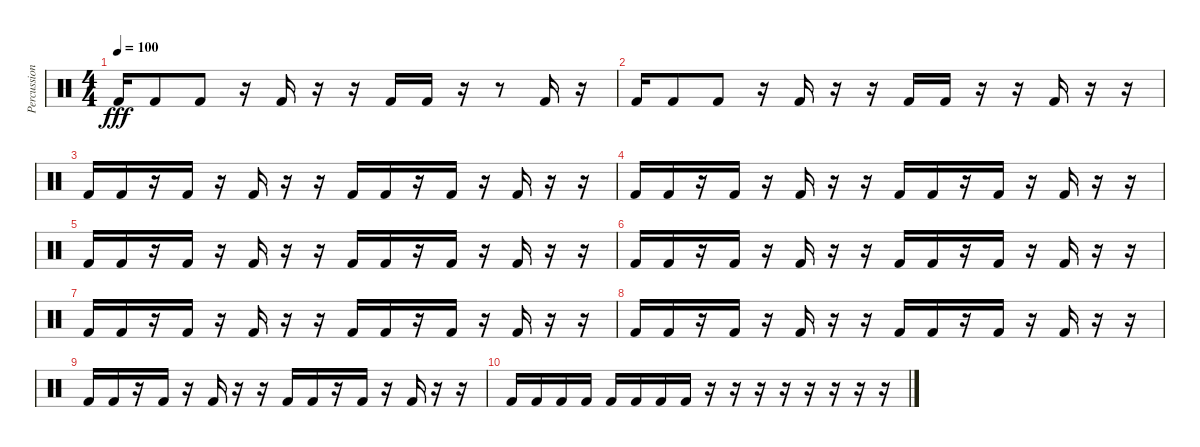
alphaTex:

\track ("Percussion" "Percussion") {instrument percussion}
\staff {score}
\articulation defaults
\ts (4 4)
\tempo 100
\clef neutral
\ks c "Kick (hit) 2".16{dy fff} "Kick (hit) 2".8 "Kick (hit) 2".8
r.16 "Kick (hit) 2".16 r.16 r.16 "Kick (hit) 2".16 "Kick (hit) 2".16 r.16 r.8 "Kick (hit) 2".16 r.16 |
"Kick (hit) 2".16 "Kick (hit) 2".8 "Kick (hit) 2".8 r.16 "Kick (hit) 2".16 r.16 r.16 "Kick (hit) 2".16 "Kick (hit) 2".16 r.16 r.16 "Kick (hit) 2".16 r.16 r.16 |
"Kick (hit) 2".16 "Kick (hit) 2".16 r.16 "Kick (hit) 2".16 r.16 "Kick (hit) 2".16 r.16 r.16 "Kick (hit) 2".16 "Kick (hit) 2".16 r.16 "Kick (hit) 2".16 r.16 "Kick (hit) 2".16 r.16 r.16 |
"Kick (hit) 2".16 "Kick (hit) 2".16 r.16 "Kick (hit) 2".16 r.16 "Kick (hit) 2".16 r.16 r.16 "Kick (hit) 2".16 "Kick (hit) 2".16 r.16 "Kick (hit) 2".16 r.16 "Kick (hit) 2".16 r.16 r.16 |
"Kick (hit) 2".16 "Kick (hit) 2".16 r.16 "Kick (hit) 2".16 r.16 "Kick (hit) 2".16 r.16 r.16 "Kick (hit) 2".16 "Kick (hit) 2".16 r.16 "Kick (hit) 2".16 r.16 "Kick (hit) 2".16 r.16 r.16 |
"Kick (hit) 2".16 "Kick (hit) 2".16 r.16 "Kick (hit) 2".16 r.16 "Kick (hit) 2".16 r.16 r.16 "Kick (hit) 2".16 "Kick (hit) 2".16 r.16 "Kick (hit) 2".16 r.16 "Kick (hit) 2".16 r.16 r.16 |
"Kick (hit) 2".16 "Kick (hit) 2".16 r.16 "Kick (hit) 2".16 r.16 "Kick (hit) 2".16 r.16 r.16 "Kick (hit) 2".16 "Kick (hit) 2".16 r.16 "Kick (hit) 2".16 r.16 "Kick (hit) 2".16 r.16 r.16 |
"Kick (hit) 2".16 "Kick (hit) 2".16 r.16 "Kick (hit) 2".16 r.16 "Kick (hit) 2".16 r.16 r.16 "Kick (hit) 2".16 "Kick (hit) 2".16 r.16 "Kick (hit) 2".16 r.16 "Kick (hit) 2".16 r.16 r.16 |
"Kick (hit) 2".16 "Kick (hit) 2".16 r.16 "Kick (hit) 2".16 r.16 "Kick (hit) 2".16 r.16 r.16 "Kick (hit) 2".16 "Kick (hit) 2".16 r.16 "Kick (hit) 2".16 r.16 "Kick (hit) 2".16 r.16 r.16 |
"Kick (hit) 2".16 "Kick (hit) 2".16 "Kick (hit) 2".16 "Kick (hit) 2".16 "Kick (hit) 2".16 "Kick (hit) 2".16 "Kick (hit) 2".16 "Kick (hit) 2".16 r.16 r.16 r.16 r.16 r.16 r.16 r.16 r.16
